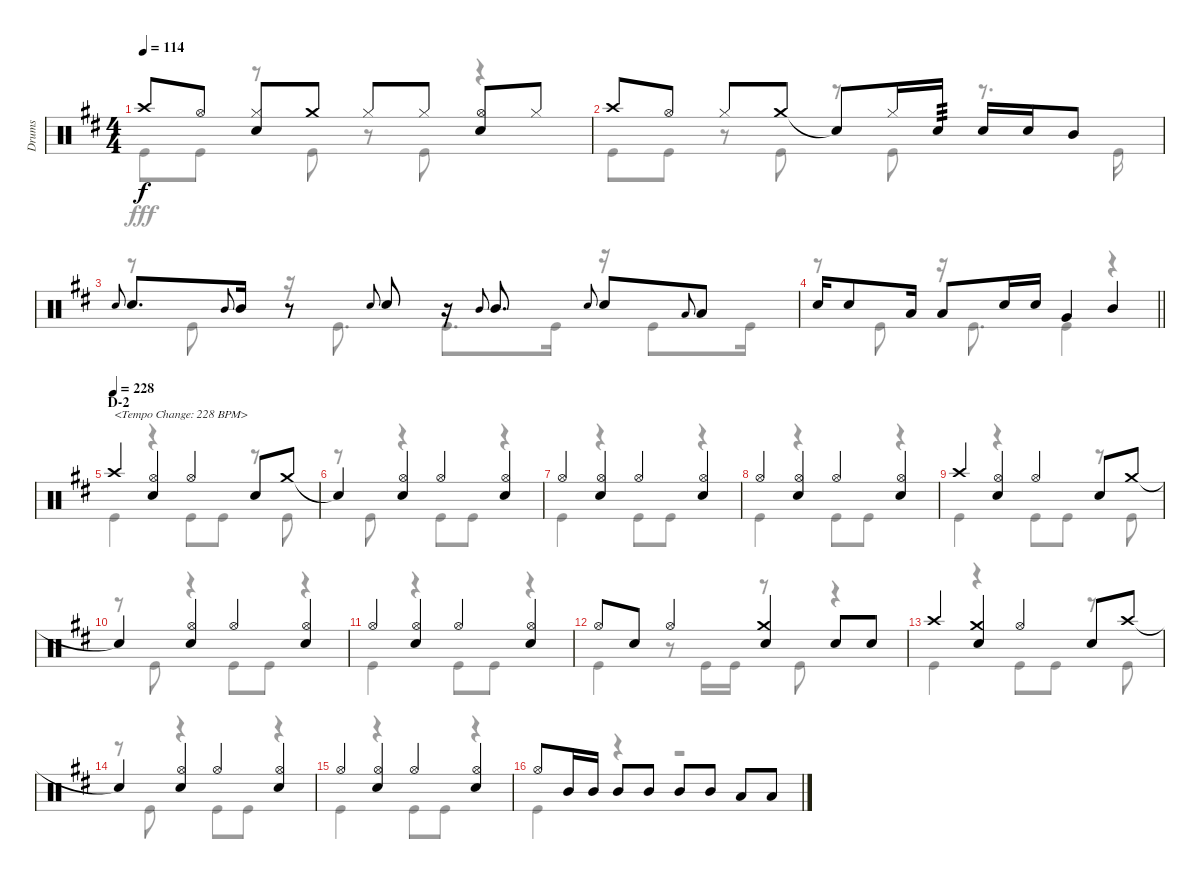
\track ("Drums" "Drums") {instrument percussion}
\staff {score}
\articulation defaults
\voice
\ts (4 4)
\tempo 114
\clef neutral
\ks d "Crash high (hit)".8{dy f} "Hi-Hat (open)".8
("Hi-Hat (closed)" "Snare (hit) 2").8 "Crash medium (hit)".8 "Hi-Hat (closed)".8 "Hi-Hat (closed)".8 ("Hi-Hat (open)" "Snare (hit) 2").8 "Hi-Hat (closed)".8 |
"Crash high (hit)".8 "Hi-Hat (open)".8 "Hi-Hat (closed)".8 "Crash medium (hit)".8 "Snare (hit)"{t}.8 "Hi-Hat (closed)".16 "Snare (hit) 2".16{tp 3} "Snare (hit) 2".16 "Snare (hit) 2".16 "Mid Tom (hit)".8 |
"Snare (hit) 2".8{gr onbeat} "Snare (hit) 2".8{d} "Mid Tom (hit)".8{gr onbeat} "Mid Tom (hit)".16 r.8 "Snare (hit) 2".8{gr onbeat} "Snare (hit) 2".8 r.16 "Mid Tom (hit)".8{gr onbeat} "Mid Tom (hit)".8{d} "Snare (hit) 2".8{gr onbeat} "Snare (hit) 2".8 "Low Tom (hit)".8{gr onbeat} "Low Tom (hit)".8 |
\barLineRight lightlight "Snare (hit) 2".16 "Snare (hit) 2".8 "Low Tom (hit)".16 "Low Tom (hit)".8 "Snare (hit) 2".16 "Snare (hit) 2".16 "Very Low Tom (hit)".4 "Mid Tom (hit)".4
|
\section ("" "D-2")
\tempo (228)
"Crash high (hit)".4{txt "<Tempo Change: 228 BPM>"} ("Hi-Hat (open)" "Snare (hit) 2").4 "Hi-Hat (open)".4 "Snare (hit) 2".8 "Crash medium (hit)".8 |
"Snare (hit)"{t}.4 ("Hi-Hat (open)" "Snare (hit) 2").4 "Hi-Hat (open)".4 ("Hi-Hat (open)" "Snare (hit) 2").4 |
"Hi-Hat (open)".4 ("Hi-Hat (open)" "Snare (hit) 2").4 "Hi-Hat (open)".4 ("Hi-Hat (open)" "Snare (hit) 2").4 |
"Hi-Hat (open)".4 ("Hi-Hat (open)" "Snare (hit) 2").4 "Hi-Hat (open)".4 ("Hi-Hat (open)" "Snare (hit) 2").4 |
"Crash high (hit)".4 ("Hi-Hat (open)" "Snare (hit) 2").4 "Hi-Hat (open)".4 "Snare (hit) 2".8 "Crash medium (hit)".8 |
"Snare (hit)"{t}.4 ("Hi-Hat (open)" "Snare (hit) 2").4 "Hi-Hat (open)".4 ("Hi-Hat (open)" "Snare (hit) 2").4 |
"Hi-Hat (open)".4 ("Hi-Hat (open)" "Snare (hit) 2").4 "Hi-Hat (open)".4 ("Hi-Hat (open)" "Snare (hit) 2").4 |
"Hi-Hat (open)".8 "Snare (hit) 2".8 "Hi-Hat (open)".4 ("Crash medium (hit)" "Snare (hit) 2").4 "Snare (hit) 2".8 "Snare (hit) 2".8 |
"Crash high (hit)".4 ("Crash medium (hit)" "Snare (hit) 2").4 "Hi-Hat (open)".4 "Snare (hit) 2".8 "Crash high (hit)".8 |
"Snare (hit)"{t}.4 ("Hi-Hat (open)" "Snare (hit) 2").4 "Hi-Hat (open)".4 ("Hi-Hat (open)" "Snare (hit) 2").4 |
"Hi-Hat (open)".4 ("Hi-Hat (open)" "Snare (hit) 2").4 "Hi-Hat (open)".4 ("Hi-Hat (open)" "Snare (hit) 2").4 |
"Hi-Hat (open)".8 "Mid Tom (hit)".16 "Mid Tom (hit)".16 "Mid Tom (hit)".8 "Mid Tom (hit)".8 "Mid Tom (hit)".8 "Mid Tom (hit)".8 "Low Tom (hit)".8 "Low Tom (hit)".8
\voice
\clef neutral
\ottava regular
\simile none
\ks d "Kick (hit)".8{dy fff} "Kick (hit)".8
r.8 "Kick (hit)".8 r.8 "Kick (hit)".8 r.4 |
"Kick (hit)".8 "Kick (hit)".8 r.8 "Kick (hit)".8 r.8 "Kick (hit)".8 r.8{d} "Kick (hit)".16 |
r.8 "Kick (hit)".8 r.16 "Kick (hit)".8{d} "Kick (hit)".8{d} "Kick (hit)".16 r.16 "Kick (hit)".8 "Kick (hit)".16 |
\barLineRight lightlight
r.8 "Kick (hit)".8 r.16 "Kick (hit)".8{d} "Kick (hit)".4 r.4 |
"Kick (hit)".4 r.4 "Kick (hit)".8 "Kick (hit)".8 r.8 "Kick (hit)".8 |
r.8 "Kick (hit)".8 r.4 "Kick (hit)".8 "Kick (hit)".8 r.4 |
"Kick (hit)".4 r.4 "Kick (hit)".8 "Kick (hit)".8 r.4 |
"Kick (hit)".4 r.4 "Kick (hit)".8 "Kick (hit)".8 r.4 |
"Kick (hit)".4 r.4 "Kick (hit)".8 "Kick (hit)".8 r.8 "Kick (hit)".8 |
r.8 "Kick (hit)".8 r.4 "Kick (hit)".8 "Kick (hit)".8 r.4 |
"Kick (hit)".4 r.4 "Kick (hit)".8 "Kick (hit)".8 r.4 |
"Kick (hit)".4 r.8 "Kick (hit)".16 "Kick (hit)".16 r.8 "Kick (hit)".8 r.4 |
"Kick (hit)".4 r.4 "Kick (hit)".8 "Kick (hit)".8 r.8 "Kick (hit)".8 |
r.8 "Kick (hit)".8 r.4 "Kick (hit)".8 "Kick (hit)".8 r.4 |
"Kick (hit)".4 r.4 "Kick (hit)".8 "Kick (hit)".8 r.4 |
"Kick (hit)".4 r.4 r.2
